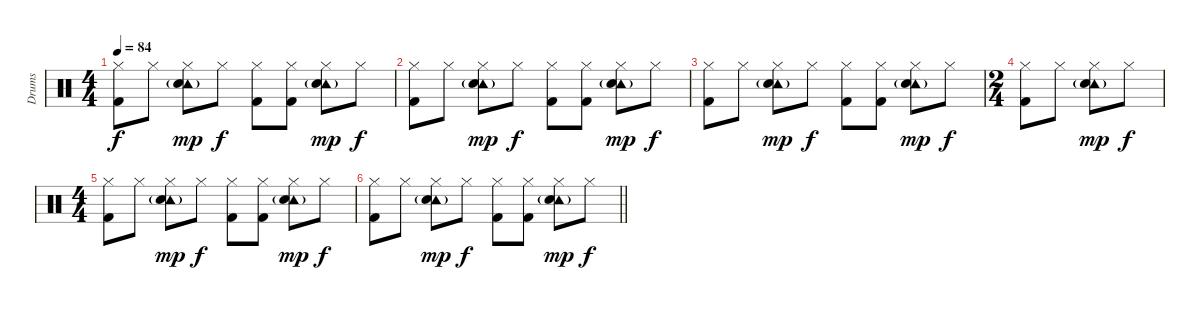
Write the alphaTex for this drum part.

\track ("Drums" "Drums") {instrument percussion}
\staff {score}
\articulation defaults
\ts (4 4)
\tempo 84
\clef neutral
\ks c
("Hi-Hat (closed)" "Kick (hit) 2").8{dy f} "Hi-Hat (closed)".8 ("Hi-Hat (closed)" "Tambourine (hit)"{g} "Snare (hit) 2").8{dy mp} "Hi-Hat (closed)".8{dy f} ("Hi-Hat (closed)" "Kick (hit) 2").8 ("Hi-Hat (closed)" "Kick (hit) 2").8 ("Hi-Hat (closed)" "Tambourine (hit)"{g} "Snare (hit) 2").8{dy mp} "Hi-Hat (closed)".8{dy f} |
("Hi-Hat (closed)" "Kick (hit) 2").8 "Hi-Hat (closed)".8 ("Hi-Hat (closed)" "Tambourine (hit)"{g} "Snare (hit) 2").8{dy mp} "Hi-Hat (closed)".8{dy f} ("Hi-Hat (closed)" "Kick (hit) 2").8 ("Hi-Hat (closed)" "Kick (hit) 2").8 ("Hi-Hat (closed)" "Tambourine (hit)"{g} "Snare (hit) 2").8{dy mp} "Hi-Hat (closed)".8{dy f} |
("Hi-Hat (closed)" "Kick (hit) 2").8 "Hi-Hat (closed)".8 ("Hi-Hat (closed)" "Tambourine (hit)"{g} "Snare (hit) 2").8{dy mp} "Hi-Hat (closed)".8{dy f} ("Hi-Hat (closed)" "Kick (hit) 2").8 ("Hi-Hat (closed)" "Kick (hit) 2").8 ("Hi-Hat (closed)" "Tambourine (hit)"{g} "Snare (hit) 2").8{dy mp} "Hi-Hat (closed)".8{dy f} |
\ts (2 4)
("Hi-Hat (closed)" "Kick (hit) 2").8 "Hi-Hat (closed)".8 ("Hi-Hat (closed)" "Tambourine (hit)"{g} "Snare (hit) 2").8{dy mp} "Hi-Hat (closed)".8{dy f} |
\ts (4 4)
("Hi-Hat (closed)" "Kick (hit) 2").8 "Hi-Hat (closed)".8 ("Hi-Hat (closed)" "Tambourine (hit)"{g} "Snare (hit) 2").8{dy mp} "Hi-Hat (closed)".8{dy f} ("Hi-Hat (closed)" "Kick (hit) 2").8 ("Hi-Hat (closed)" "Kick (hit) 2").8 ("Hi-Hat (closed)" "Tambourine (hit)"{g} "Snare (hit) 2").8{dy mp} "Hi-Hat (closed)".8{dy f} |
\barLineRight lightlight
("Hi-Hat (closed)" "Kick (hit) 2").8 "Hi-Hat (closed)".8 ("Hi-Hat (closed)" "Tambourine (hit)"{g} "Snare (hit) 2").8{dy mp} "Hi-Hat (closed)".8{dy f} ("Hi-Hat (closed)" "Kick (hit) 2").8 ("Hi-Hat (closed)" "Kick (hit) 2").8 ("Hi-Hat (closed)" "Tambourine (hit)"{g} "Snare (hit) 2").8{dy mp} "Hi-Hat (closed)".8{dy f}
